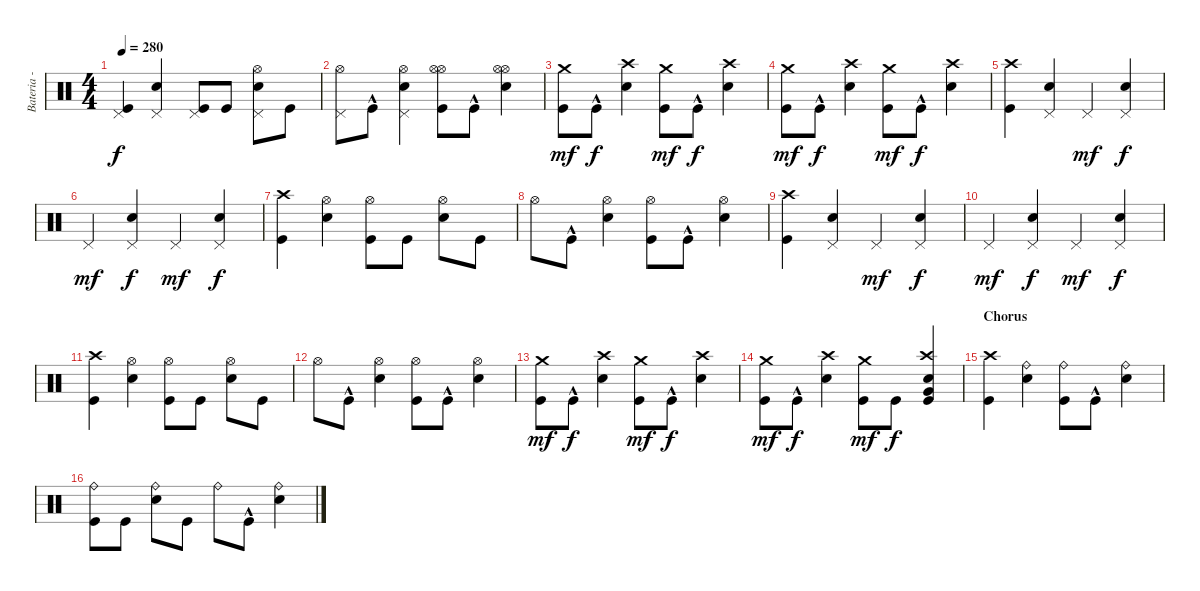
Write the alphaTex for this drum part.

\track ("Bateria - Larzon" "Bateria - ") {instrument percussion}
\staff {score}
\articulation defaults
\ts (4 4)
\tempo 280
\clef neutral
\ks c
("Kick (hit)" "Pedal Hi-Hat (hit)").4{dy f} ("Snare (hit) 2" "Pedal Hi-Hat (hit)").4 ("Kick (hit)" "Pedal Hi-Hat (hit)").8 "Kick (hit)".8 ("Snare (hit) 2" "Pedal Hi-Hat (hit)" "Hi-Hat (open)").8 "Kick (hit)".8 |
("Pedal Hi-Hat (hit)" "Hi-Hat (open)").8 "Kick (hit)"{hac}.8 ("Snare (hit) 2" "Pedal Hi-Hat (hit)" "Hi-Hat (open)").4 ("Kick (hit)" "Hi-Hat (open)" "Hi-Hat (open)").8 "Kick (hit)"{hac}.8 ("Snare (hit) 2" "Hi-Hat (open)" "Hi-Hat (open)").4 |
("Kick (hit)" "Crash medium (hit)").8{dy mf} "Kick (hit)"{hac}.8{dy f} ("Snare (hit) 2" "Crash high (hit)").4 ("Kick (hit)" "Crash medium (hit)").8{dy mf} "Kick (hit)"{hac}.8{dy f} ("Snare (hit) 2" "Crash high (hit)").4 |
("Kick (hit)" "Crash medium (hit)").8{dy mf} "Kick (hit)"{hac}.8{dy f} ("Snare (hit) 2" "Crash high (hit)").4 ("Kick (hit)" "Crash medium (hit)").8{dy mf} "Kick (hit)"{hac}.8{dy f} ("Snare (hit) 2" "Crash high (hit)").4 |
("Kick (hit)" "Crash high (hit)").4 ("Snare (hit) 2" "Pedal Hi-Hat (hit)").4 "Pedal Hi-Hat (hit)".4{dy mf} ("Snare (hit) 2" "Pedal Hi-Hat (hit)").4{dy f} |
"Pedal Hi-Hat (hit)".4{dy mf} ("Snare (hit) 2" "Pedal Hi-Hat (hit)").4{dy f} "Pedal Hi-Hat (hit)".4{dy mf} ("Snare (hit) 2" "Pedal Hi-Hat (hit)").4{dy f} |
("Kick (hit)" "Crash high (hit)").4 ("Snare (hit) 2" "Hi-Hat (open)").4 ("Kick (hit)" "Hi-Hat (open)").8 "Kick (hit)".8 ("Snare (hit) 2" "Hi-Hat (open)").8 "Kick (hit)".8 |
"Hi-Hat (open)".8 "Kick (hit)"{hac}.8 ("Snare (hit) 2" "Hi-Hat (open)").4 ("Kick (hit)" "Hi-Hat (open)").8 "Kick (hit)"{hac}.8 ("Snare (hit) 2" "Hi-Hat (open)").4 |
("Kick (hit)" "Crash high (hit)").4 ("Snare (hit) 2" "Pedal Hi-Hat (hit)").4 "Pedal Hi-Hat (hit)".4{dy mf} ("Snare (hit) 2" "Pedal Hi-Hat (hit)").4{dy f} |
"Pedal Hi-Hat (hit)".4{dy mf} ("Snare (hit) 2" "Pedal Hi-Hat (hit)").4{dy f} "Pedal Hi-Hat (hit)".4{dy mf} ("Snare (hit) 2" "Pedal Hi-Hat (hit)").4{dy f} |
("Kick (hit)" "Crash high (hit)").4 ("Snare (hit) 2" "Hi-Hat (open)").4 ("Kick (hit)" "Hi-Hat (open)").8 "Kick (hit)".8 ("Snare (hit) 2" "Hi-Hat (open)").8 "Kick (hit)".8 |
"Hi-Hat (open)".8 "Kick (hit)"{hac}.8 ("Snare (hit) 2" "Hi-Hat (open)").4 ("Kick (hit)" "Hi-Hat (open)").8 "Kick (hit)"{hac}.8 ("Snare (hit) 2" "Hi-Hat (open)").4 |
("Kick (hit)" "Crash medium (hit)").8{dy mf} "Kick (hit)"{hac}.8{dy f} ("Snare (hit) 2" "Crash high (hit)").4 ("Kick (hit)" "Crash medium (hit)").8{dy mf} "Kick (hit)"{hac}.8{dy f} ("Snare (hit) 2" "Crash high (hit)").4 |
("Kick (hit)" "Crash medium (hit)").8{dy mf} "Kick (hit)"{hac}.8{dy f} ("Snare (hit) 2" "Crash high (hit)").4 ("Kick (hit)" "Crash medium (hit)").8{dy mf} "Kick (hit)".8{dy f} ("Kick (hit)" "Snare (hit) 2" "Very Low Tom (hit)" "Crash high (hit)").4 |
\section ("" "Chorus")
("Kick (hit)" "Crash high (hit)").4 ("Snare (hit) 2" "Ride (bell)").4 ("Kick (hit)" "Ride (bell)").8 "Kick (hit)"{hac}.8 ("Snare (hit) 2" "Ride (bell)").4 |
("Kick (hit)" "Ride (bell)").8 "Kick (hit)".8 ("Snare (hit) 2" "Ride (bell)").8 "Kick (hit)".8 "Ride (bell)".8 "Kick (hit)"{hac}.8 ("Snare (hit) 2" "Ride (bell)").4
